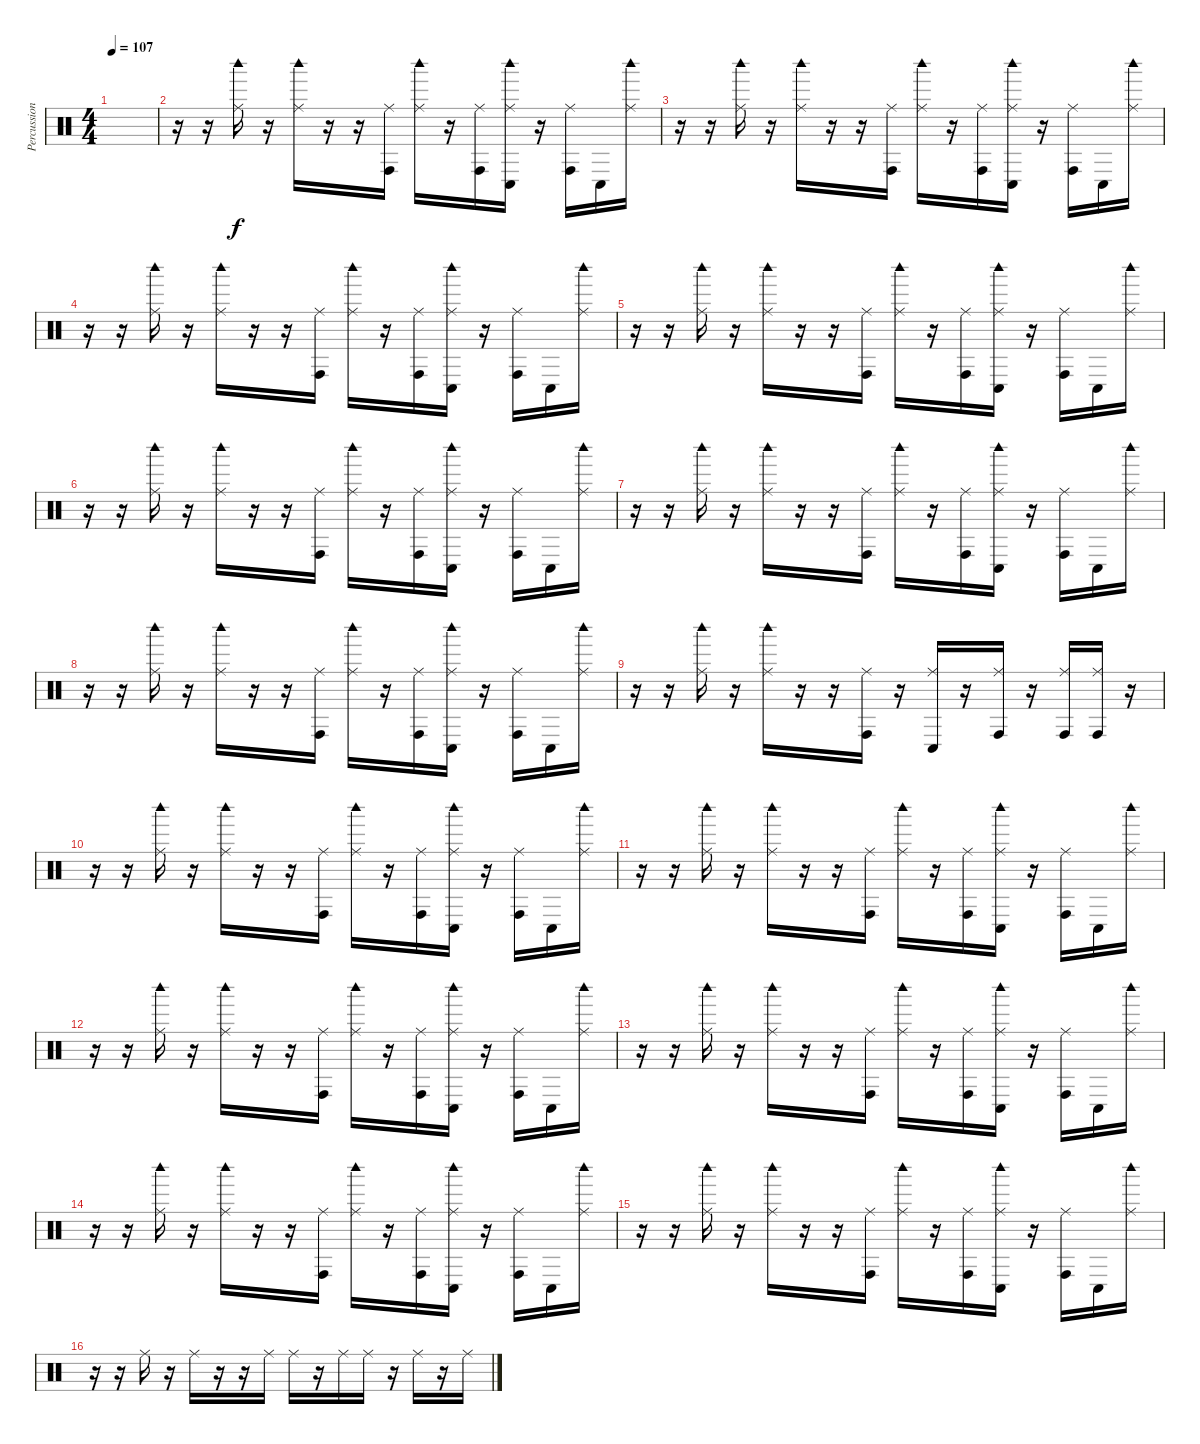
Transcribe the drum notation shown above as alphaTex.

\track ("Percussioni" "Percussion") {instrument percussion}
\staff {score}
\articulation defaults
\ts (4 4)
\tempo 107
\clef neutral
\ks c
|
r.16 r.16 ("Woodblock high (hit)" "Ride (middle)").16{dy f} r.16 ("Woodblock high (hit)" "Ride (middle)").16 r.16 r.16 ("Ride (middle)" "Conga high (hit)").16 ("Woodblock high (hit)" "Ride (middle)").16 r.16 ("Ride (middle)" "Conga high (hit)").16 ("Woodblock high (hit)" "Ride (middle)" "Conga low (hit)").16 r.16 ("Ride (middle)" "Conga high (hit)").16 "Conga low (hit)".16 ("Woodblock high (hit)" "Ride (middle)").16 |
r.16 r.16 ("Woodblock high (hit)" "Ride (middle)").16 r.16 ("Woodblock high (hit)" "Ride (middle)").16 r.16 r.16 ("Ride (middle)" "Conga high (hit)").16 ("Woodblock high (hit)" "Ride (middle)").16 r.16 ("Ride (middle)" "Conga high (hit)").16 ("Woodblock high (hit)" "Ride (middle)" "Conga low (hit)").16 r.16 ("Ride (middle)" "Conga high (hit)").16 "Conga low (hit)".16 ("Woodblock high (hit)" "Ride (middle)").16 |
r.16 r.16 ("Woodblock high (hit)" "Ride (middle)").16 r.16 ("Woodblock high (hit)" "Ride (middle)").16 r.16 r.16 ("Ride (middle)" "Conga high (hit)").16 ("Woodblock high (hit)" "Ride (middle)").16 r.16 ("Ride (middle)" "Conga high (hit)").16 ("Woodblock high (hit)" "Ride (middle)" "Conga low (hit)").16 r.16 ("Ride (middle)" "Conga high (hit)").16 "Conga low (hit)".16 ("Woodblock high (hit)" "Ride (middle)").16 |
r.16 r.16 ("Woodblock high (hit)" "Ride (middle)").16 r.16 ("Woodblock high (hit)" "Ride (middle)").16 r.16 r.16 ("Ride (middle)" "Conga high (hit)").16 ("Woodblock high (hit)" "Ride (middle)").16 r.16 ("Ride (middle)" "Conga high (hit)").16 ("Woodblock high (hit)" "Ride (middle)" "Conga low (hit)").16 r.16 ("Ride (middle)" "Conga high (hit)").16 "Conga low (hit)".16 ("Woodblock high (hit)" "Ride (middle)").16 |
r.16 r.16 ("Woodblock high (hit)" "Ride (middle)").16 r.16 ("Woodblock high (hit)" "Ride (middle)").16 r.16 r.16 ("Ride (middle)" "Conga high (hit)").16 ("Woodblock high (hit)" "Ride (middle)").16 r.16 ("Ride (middle)" "Conga high (hit)").16 ("Woodblock high (hit)" "Ride (middle)" "Conga low (hit)").16 r.16 ("Ride (middle)" "Conga high (hit)").16 "Conga low (hit)".16 ("Woodblock high (hit)" "Ride (middle)").16 |
r.16 r.16 ("Woodblock high (hit)" "Ride (middle)").16 r.16 ("Woodblock high (hit)" "Ride (middle)").16 r.16 r.16 ("Ride (middle)" "Conga high (hit)").16 ("Woodblock high (hit)" "Ride (middle)").16 r.16 ("Ride (middle)" "Conga high (hit)").16 ("Woodblock high (hit)" "Ride (middle)" "Conga low (hit)").16 r.16 ("Ride (middle)" "Conga high (hit)").16 "Conga low (hit)".16 ("Woodblock high (hit)" "Ride (middle)").16 |
r.16 r.16 ("Woodblock high (hit)" "Ride (middle)").16 r.16 ("Woodblock high (hit)" "Ride (middle)").16 r.16 r.16 ("Ride (middle)" "Conga high (hit)").16 ("Woodblock high (hit)" "Ride (middle)").16 r.16 ("Ride (middle)" "Conga high (hit)").16 ("Woodblock high (hit)" "Ride (middle)" "Conga low (hit)").16 r.16 ("Ride (middle)" "Conga high (hit)").16 "Conga low (hit)".16 ("Woodblock high (hit)" "Ride (middle)").16 |
r.16 r.16 ("Woodblock high (hit)" "Ride (middle)").16 r.16 ("Woodblock high (hit)" "Ride (middle)").16 r.16 r.16 ("Ride (middle)" "Conga high (hit)").16 r.16 ("Conga low (hit)" "Ride (middle)").16 r.16 ("Ride (middle)" "Conga high (hit)").16 r.16 ("Ride (middle)" "Conga high (hit)").16 ("Ride (middle)" "Conga high (hit)").16 r.16 |
r.16 r.16 ("Woodblock high (hit)" "Ride (middle)").16 r.16 ("Woodblock high (hit)" "Ride (middle)").16 r.16 r.16 ("Ride (middle)" "Conga high (hit)").16 ("Woodblock high (hit)" "Ride (middle)").16 r.16 ("Ride (middle)" "Conga high (hit)").16 ("Woodblock high (hit)" "Ride (middle)" "Conga low (hit)").16 r.16 ("Ride (middle)" "Conga high (hit)").16 "Conga low (hit)".16 ("Woodblock high (hit)" "Ride (middle)").16 |
r.16 r.16 ("Woodblock high (hit)" "Ride (middle)").16 r.16 ("Woodblock high (hit)" "Ride (middle)").16 r.16 r.16 ("Ride (middle)" "Conga high (hit)").16 ("Woodblock high (hit)" "Ride (middle)").16 r.16 ("Ride (middle)" "Conga high (hit)").16 ("Woodblock high (hit)" "Ride (middle)" "Conga low (hit)").16 r.16 ("Ride (middle)" "Conga high (hit)").16 "Conga low (hit)".16 ("Woodblock high (hit)" "Ride (middle)").16 |
r.16 r.16 ("Woodblock high (hit)" "Ride (middle)").16 r.16 ("Woodblock high (hit)" "Ride (middle)").16 r.16 r.16 ("Ride (middle)" "Conga high (hit)").16 ("Woodblock high (hit)" "Ride (middle)").16 r.16 ("Ride (middle)" "Conga high (hit)").16 ("Woodblock high (hit)" "Ride (middle)" "Conga low (hit)").16 r.16 ("Ride (middle)" "Conga high (hit)").16 "Conga low (hit)".16 ("Woodblock high (hit)" "Ride (middle)").16 |
r.16 r.16 ("Woodblock high (hit)" "Ride (middle)").16 r.16 ("Woodblock high (hit)" "Ride (middle)").16 r.16 r.16 ("Ride (middle)" "Conga high (hit)").16 ("Woodblock high (hit)" "Ride (middle)").16 r.16 ("Ride (middle)" "Conga high (hit)").16 ("Woodblock high (hit)" "Ride (middle)" "Conga low (hit)").16 r.16 ("Ride (middle)" "Conga high (hit)").16 "Conga low (hit)".16 ("Woodblock high (hit)" "Ride (middle)").16 |
r.16 r.16 ("Woodblock high (hit)" "Ride (middle)").16 r.16 ("Woodblock high (hit)" "Ride (middle)").16 r.16 r.16 ("Ride (middle)" "Conga high (hit)").16 ("Woodblock high (hit)" "Ride (middle)").16 r.16 ("Ride (middle)" "Conga high (hit)").16 ("Woodblock high (hit)" "Ride (middle)" "Conga low (hit)").16 r.16 ("Ride (middle)" "Conga high (hit)").16 "Conga low (hit)".16 ("Woodblock high (hit)" "Ride (middle)").16 |
r.16 r.16 ("Woodblock high (hit)" "Ride (middle)").16 r.16 ("Woodblock high (hit)" "Ride (middle)").16 r.16 r.16 ("Ride (middle)" "Conga high (hit)").16 ("Woodblock high (hit)" "Ride (middle)").16 r.16 ("Ride (middle)" "Conga high (hit)").16 ("Woodblock high (hit)" "Ride (middle)" "Conga low (hit)").16 r.16 ("Ride (middle)" "Conga high (hit)").16 "Conga low (hit)".16 ("Woodblock high (hit)" "Ride (middle)").16 |
r.16 r.16 "Ride (middle)".16 r.16 "Ride (middle)".16 r.16 r.16 "Ride (middle)".16 "Ride (middle)".16 r.16 "Ride (middle)".16 "Ride (middle)".16 r.16 "Ride (middle)".16 r.16 "Ride (middle)".16
